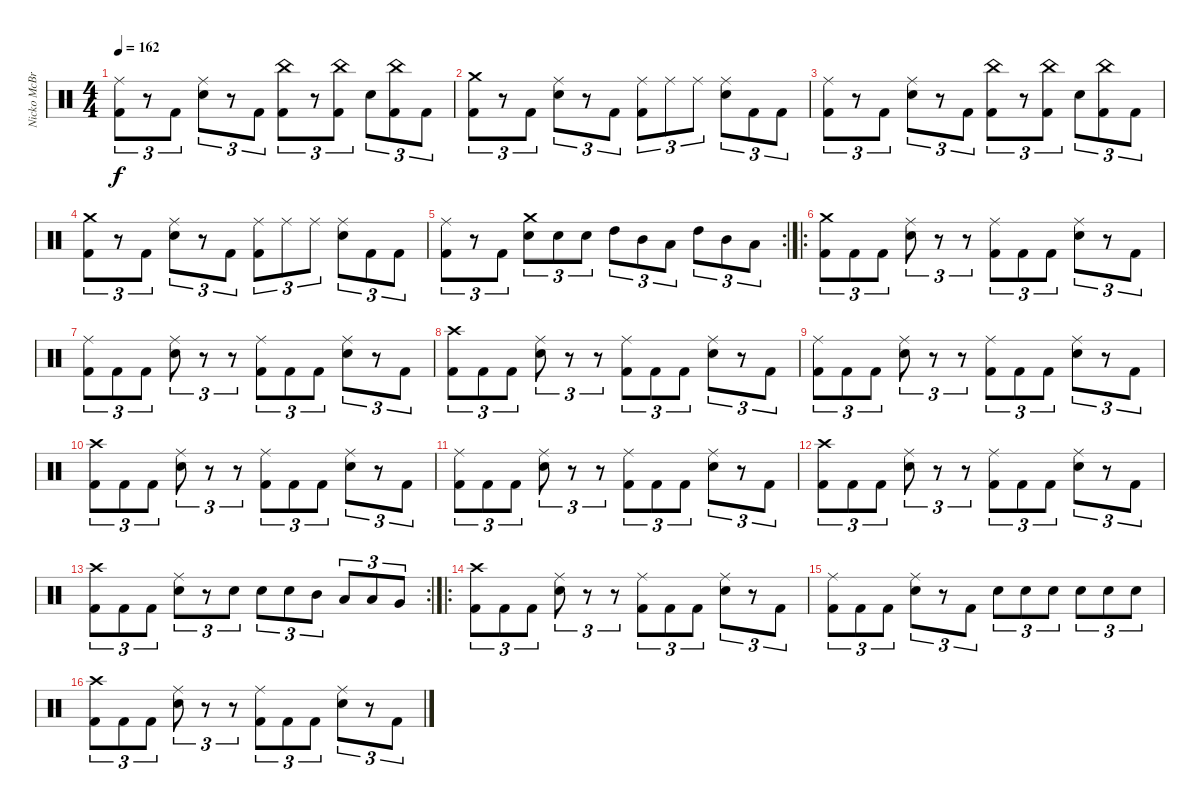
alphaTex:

\track ("Nicko McBrain" "Nicko McBr") {instrument percussion}
\staff {score}
\articulation defaults
\ts (4 4)
\tempo 162
\clef neutral
\ks c
("Ride (middle)" "Kick (hit) 2").8{tu (3 2) dy f} r.8{tu (3 2)} "Kick (hit) 2".8{tu (3 2)} ("Ride (middle)" "Electric Snare (hit)").8{tu (3 2)} r.8{tu (3 2)} "Kick (hit) 2".8{tu (3 2)} ("China (hit)" "Kick (hit) 2").8{tu (3 2)} r.8{tu (3 2)} ("China (hit)" "Kick (hit) 2").8{tu (3 2)} "Electric Snare (hit)".8{tu (3 2)} ("China (hit)" "Kick (hit) 2").8{tu (3 2)} "Kick (hit) 2".8{tu (3 2)} |
("Crash medium (hit)" "Kick (hit) 2").8{tu (3 2)} r.8{tu (3 2)} "Kick (hit) 2".8{tu (3 2)} ("Ride (middle)" "Electric Snare (hit)").8{tu (3 2)} r.8{tu (3 2)} "Kick (hit) 2".8{tu (3 2)} ("Ride (middle)" "Kick (hit) 2").8{tu (3 2)} "Ride (middle)".8{tu (3 2)} "Ride (middle)".8{tu (3 2)} ("Ride (middle)" "Electric Snare (hit)").8{tu (3 2)} "Kick (hit) 2".8{tu (3 2)} "Kick (hit) 2".8{tu (3 2)} |
("Ride (middle)" "Kick (hit) 2").8{tu (3 2)} r.8{tu (3 2)} "Kick (hit) 2".8{tu (3 2)} ("Ride (middle)" "Electric Snare (hit)").8{tu (3 2)} r.8{tu (3 2)} "Kick (hit) 2".8{tu (3 2)} ("China (hit)" "Kick (hit) 2").8{tu (3 2)} r.8{tu (3 2)} ("China (hit)" "Kick (hit) 2").8{tu (3 2)} "Electric Snare (hit)".8{tu (3 2)} ("China (hit)" "Kick (hit) 2").8{tu (3 2)} "Kick (hit) 2".8{tu (3 2)} |
("Crash medium (hit)" "Kick (hit) 2").8{tu (3 2)} r.8{tu (3 2)} "Kick (hit) 2".8{tu (3 2)} ("Ride (middle)" "Electric Snare (hit)").8{tu (3 2)} r.8{tu (3 2)} "Kick (hit) 2".8{tu (3 2)} ("Ride (middle)" "Kick (hit) 2").8{tu (3 2)} "Ride (middle)".8{tu (3 2)} "Ride (middle)".8{tu (3 2)} ("Ride (middle)" "Electric Snare (hit)").8{tu (3 2)} "Kick (hit) 2".8{tu (3 2)} "Kick (hit) 2".8{tu (3 2)} |
\rc 2
("Ride (middle)" "Kick (hit) 2").8{tu (3 2)} r.8{tu (3 2)} "Kick (hit) 2".8{tu (3 2)} ("Crash medium (hit)" "Electric Snare (hit)").8{tu (3 2)} "Electric Snare (hit)".8{tu (3 2)} "Electric Snare (hit)".8{tu (3 2)} "High Tom (hit)".8{tu (3 2)} "Mid Tom (hit)".8{tu (3 2)} "Low Tom (hit)".8{tu (3 2)} "High Tom (hit)".8{tu (3 2)} "Mid Tom (hit)".8{tu (3 2)} "Low Tom (hit)".8{tu (3 2)} |
\ro
("Crash medium (hit)" "Kick (hit) 2").8{tu (3 2)} "Kick (hit) 2".8{tu (3 2)} "Kick (hit) 2".8{tu (3 2)} ("Ride (middle)" "Electric Snare (hit)").8{tu (3 2)} r.8{tu (3 2)} r.8{tu (3 2)} ("Ride (middle)" "Kick (hit) 2").8{tu (3 2)} "Kick (hit) 2".8{tu (3 2)} "Kick (hit) 2".8{tu (3 2)} ("Ride (middle)" "Electric Snare (hit)").8{tu (3 2)} r.8{tu (3 2)} "Kick (hit) 2".8{tu (3 2)} |
("Ride (middle)" "Kick (hit) 2").8{tu (3 2)} "Kick (hit) 2".8{tu (3 2)} "Kick (hit) 2".8{tu (3 2)} ("Ride (middle)" "Electric Snare (hit)").8{tu (3 2)} r.8{tu (3 2)} r.8{tu (3 2)} ("Ride (middle)" "Kick (hit) 2").8{tu (3 2)} "Kick (hit) 2".8{tu (3 2)} "Kick (hit) 2".8{tu (3 2)} ("Ride (middle)" "Electric Snare (hit)").8{tu (3 2)} r.8{tu (3 2)} "Kick (hit) 2".8{tu (3 2)} |
("Crash high (hit)" "Kick (hit) 2").8{tu (3 2)} "Kick (hit) 2".8{tu (3 2)} "Kick (hit) 2".8{tu (3 2)} ("Ride (middle)" "Electric Snare (hit)").8{tu (3 2)} r.8{tu (3 2)} r.8{tu (3 2)} ("Ride (middle)" "Kick (hit) 2").8{tu (3 2)} "Kick (hit) 2".8{tu (3 2)} "Kick (hit) 2".8{tu (3 2)} ("Ride (middle)" "Electric Snare (hit)").8{tu (3 2)} r.8{tu (3 2)} "Kick (hit) 2".8{tu (3 2)} |
("Ride (middle)" "Kick (hit) 2").8{tu (3 2)} "Kick (hit) 2".8{tu (3 2)} "Kick (hit) 2".8{tu (3 2)} ("Ride (middle)" "Electric Snare (hit)").8{tu (3 2)} r.8{tu (3 2)} r.8{tu (3 2)} ("Ride (middle)" "Kick (hit) 2").8{tu (3 2)} "Kick (hit) 2".8{tu (3 2)} "Kick (hit) 2".8{tu (3 2)} ("Ride (middle)" "Electric Snare (hit)").8{tu (3 2)} r.8{tu (3 2)} "Kick (hit) 2".8{tu (3 2)} |
("Crash high (hit)" "Kick (hit) 2").8{tu (3 2)} "Kick (hit) 2".8{tu (3 2)} "Kick (hit) 2".8{tu (3 2)} ("Ride (middle)" "Electric Snare (hit)").8{tu (3 2)} r.8{tu (3 2)} r.8{tu (3 2)} ("Ride (middle)" "Kick (hit) 2").8{tu (3 2)} "Kick (hit) 2".8{tu (3 2)} "Kick (hit) 2".8{tu (3 2)} ("Ride (middle)" "Electric Snare (hit)").8{tu (3 2)} r.8{tu (3 2)} "Kick (hit) 2".8{tu (3 2)} |
("Ride (middle)" "Kick (hit) 2").8{tu (3 2)} "Kick (hit) 2".8{tu (3 2)} "Kick (hit) 2".8{tu (3 2)} ("Ride (middle)" "Electric Snare (hit)").8{tu (3 2)} r.8{tu (3 2)} r.8{tu (3 2)} ("Ride (middle)" "Kick (hit) 2").8{tu (3 2)} "Kick (hit) 2".8{tu (3 2)} "Kick (hit) 2".8{tu (3 2)} ("Ride (middle)" "Electric Snare (hit)").8{tu (3 2)} r.8{tu (3 2)} "Kick (hit) 2".8{tu (3 2)} |
("Crash high (hit)" "Kick (hit) 2").8{tu (3 2)} "Kick (hit) 2".8{tu (3 2)} "Kick (hit) 2".8{tu (3 2)} ("Ride (middle)" "Electric Snare (hit)").8{tu (3 2)} r.8{tu (3 2)} r.8{tu (3 2)} ("Ride (middle)" "Kick (hit) 2").8{tu (3 2)} "Kick (hit) 2".8{tu (3 2)} "Kick (hit) 2".8{tu (3 2)} ("Ride (middle)" "Electric Snare (hit)").8{tu (3 2)} r.8{tu (3 2)} "Kick (hit) 2".8{tu (3 2)} |
\rc 2
("Crash high (hit)" "Kick (hit) 2").8{tu (3 2)} "Kick (hit) 2".8{tu (3 2)} "Kick (hit) 2".8{tu (3 2)} ("Ride (middle)" "Electric Snare (hit)").8{tu (3 2)} r.8{tu (3 2)} "Electric Snare (hit)".8{tu (3 2)} "Electric Snare (hit)".8{tu (3 2)} "Electric Snare (hit)".8{tu (3 2)} "Mid Tom (hit)".8{tu (3 2)} "Low Tom (hit)".8{tu (3 2)} "Low Tom (hit)".8{tu (3 2)} "Very Low Tom (hit)".8{tu (3 2)} |
\ro
("Crash high (hit)" "Kick (hit) 2").8{tu (3 2)} "Kick (hit) 2".8{tu (3 2)} "Kick (hit) 2".8{tu (3 2)} ("Ride (middle)" "Electric Snare (hit)").8{tu (3 2)} r.8{tu (3 2)} r.8{tu (3 2)} ("Ride (middle)" "Kick (hit) 2").8{tu (3 2)} "Kick (hit) 2".8{tu (3 2)} "Kick (hit) 2".8{tu (3 2)} ("Ride (middle)" "Electric Snare (hit)").8{tu (3 2)} r.8{tu (3 2)} "Kick (hit) 2".8{tu (3 2)} |
("Ride (middle)" "Kick (hit) 2").8{tu (3 2)} "Kick (hit) 2".8{tu (3 2)} "Kick (hit) 2".8{tu (3 2)} ("Ride (middle)" "Electric Snare (hit)").8{tu (3 2)} r.8{tu (3 2)} "Kick (hit) 2".8{tu (3 2)} "Electric Snare (hit)".8{tu (3 2)} "Electric Snare (hit)".8{tu (3 2)} "Electric Snare (hit)".8{tu (3 2)} "Electric Snare (hit)".8{tu (3 2)} "Electric Snare (hit)".8{tu (3 2)} "Electric Snare (hit)".8{tu (3 2)} |
("Crash high (hit)" "Kick (hit) 2").8{tu (3 2)} "Kick (hit) 2".8{tu (3 2)} "Kick (hit) 2".8{tu (3 2)} ("Ride (middle)" "Electric Snare (hit)").8{tu (3 2)} r.8{tu (3 2)} r.8{tu (3 2)} ("Ride (middle)" "Kick (hit) 2").8{tu (3 2)} "Kick (hit) 2".8{tu (3 2)} "Kick (hit) 2".8{tu (3 2)} ("Ride (middle)" "Electric Snare (hit)").8{tu (3 2)} r.8{tu (3 2)} "Kick (hit) 2".8{tu (3 2)}
